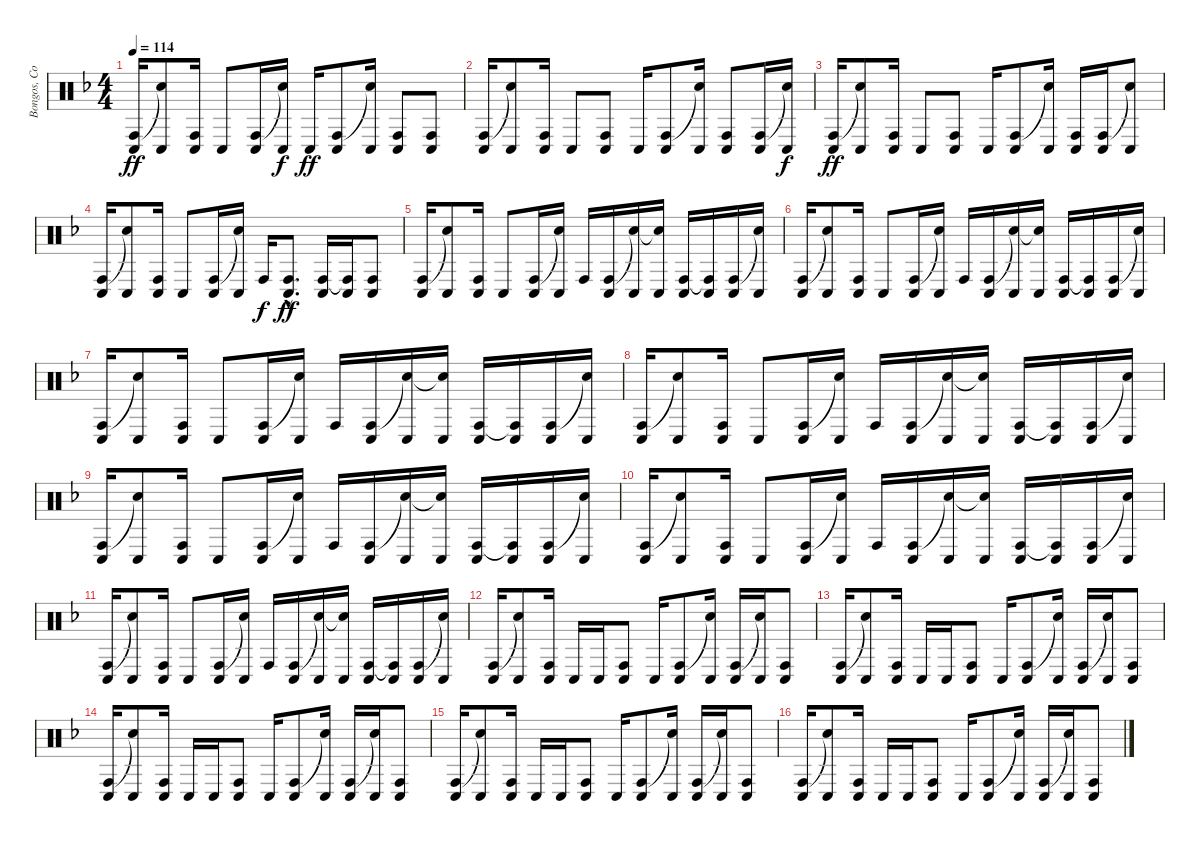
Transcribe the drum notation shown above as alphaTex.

\track ("Bongos, Congas, Timbales" "Bongos, Co") {instrument percussion}
\staff {score}
\articulation defaults
\ts (4 4)
\tempo 114
\clef neutral
\ks f
("Conga high (hit)" "Conga low (hit)").16{dy ff} ("Snare (hit)"{t} "Conga low (hit)").8 ("Conga high (hit)" "Conga low (hit)").16 "Conga low (hit)".8 ("Conga high (hit)" "Conga low (hit)").16 ("Snare (hit)"{t} "Conga low (hit)").16{dy f} "Conga low (hit)".16{dy ff} ("Conga high (hit)" "Conga low (hit)").8 ("Snare (hit)"{t} "Conga low (hit)").16 ("Conga high (hit)" "Conga low (hit)").8 ("Conga high (hit)" "Conga low (hit)").8 |
("Conga high (hit)" "Conga low (hit)").16 ("Snare (hit)"{t} "Conga low (hit)").8 ("Conga high (hit)" "Conga low (hit)").16 "Conga low (hit)".8 ("Conga high (hit)" "Conga low (hit)").8 "Conga low (hit)".16 ("Conga high (hit)" "Conga low (hit)").8 ("Snare (hit)"{t} "Conga low (hit)").16 ("Conga high (hit)" "Conga low (hit)").8 ("Conga high (hit)" "Conga low (hit)").16 ("Snare (hit)"{t} "Conga low (hit)").16{dy f} |
("Conga high (hit)" "Conga low (hit)").16{dy ff} ("Snare (hit)"{t} "Conga low (hit)").8 ("Conga high (hit)" "Conga low (hit)").16 "Conga low (hit)".8 ("Conga high (hit)" "Conga low (hit)").8 "Conga low (hit)".16 ("Conga high (hit)" "Conga low (hit)").8 ("Snare (hit)"{t} "Conga low (hit)").16 ("Conga high (hit)" "Conga low (hit)").16 ("Conga high (hit)" "Conga low (hit)").16 ("Snare (hit)"{t} "Conga low (hit)").8 |
("Conga high (hit)" "Conga low (hit)").16 ("Snare (hit)"{t} "Conga low (hit)").8 ("Conga high (hit)" "Conga low (hit)").16 "Conga low (hit)".8 ("Conga high (hit)" "Conga low (hit)").16 ("Snare (hit)"{t} "Conga low (hit)").16 "Conga high (hit)".16{dy f} ("Conga high (hit)"{hac} "Conga low (hit)"{hac}).8{d dy ff} ("Conga high (hit)" "Conga low (hit)").16 ("Conga high (hit)"{t} "Conga low (hit)").16 ("Conga high (hit)" "Conga low (hit)").8 |
("Conga high (hit)" "Conga low (hit)").16 ("Snare (hit)"{t} "Conga low (hit)").8 ("Conga high (hit)" "Conga low (hit)").16 "Conga low (hit)".8 ("Conga high (hit)" "Conga low (hit)").16 ("Snare (hit)"{t} "Conga low (hit)").16 "Conga high (hit)".16 ("Conga high (hit)" "Conga low (hit)").16 ("Snare (hit)"{t} "Conga low (hit)").16 ("Snare (hit)"{t} "Conga low (hit)").16 ("Conga high (hit)" "Conga low (hit)").16 ("Conga high (hit)"{t} "Conga low (hit)").16 ("Conga high (hit)" "Conga low (hit)").16 ("Snare (hit)"{t} "Conga low (hit)").16 |
("Conga high (hit)" "Conga low (hit)").16 ("Snare (hit)"{t} "Conga low (hit)").8 ("Conga high (hit)" "Conga low (hit)").16 "Conga low (hit)".8 ("Conga high (hit)" "Conga low (hit)").16 ("Snare (hit)"{t} "Conga low (hit)").16 "Conga high (hit)".16 ("Conga high (hit)" "Conga low (hit)").16 ("Snare (hit)"{t} "Conga low (hit)").16 ("Snare (hit)"{t} "Conga low (hit)").16 ("Conga high (hit)" "Conga low (hit)").16 ("Conga high (hit)"{t} "Conga low (hit)").16 ("Conga high (hit)" "Conga low (hit)").16 ("Snare (hit)"{t} "Conga low (hit)").16 |
("Conga high (hit)" "Conga low (hit)").16 ("Snare (hit)"{t} "Conga low (hit)").8 ("Conga high (hit)" "Conga low (hit)").16 "Conga low (hit)".8 ("Conga high (hit)" "Conga low (hit)").16 ("Snare (hit)"{t} "Conga low (hit)").16 "Conga high (hit)".16 ("Conga high (hit)" "Conga low (hit)").16 ("Snare (hit)"{t} "Conga low (hit)").16 ("Snare (hit)"{t} "Conga low (hit)").16 ("Conga high (hit)" "Conga low (hit)").16 ("Conga high (hit)"{t} "Conga low (hit)").16 ("Conga high (hit)" "Conga low (hit)").16 ("Snare (hit)"{t} "Conga low (hit)").16 |
("Conga high (hit)" "Conga low (hit)").16 ("Snare (hit)"{t} "Conga low (hit)").8 ("Conga high (hit)" "Conga low (hit)").16 "Conga low (hit)".8 ("Conga high (hit)" "Conga low (hit)").16 ("Snare (hit)"{t} "Conga low (hit)").16 "Conga high (hit)".16 ("Conga high (hit)" "Conga low (hit)").16 ("Snare (hit)"{t} "Conga low (hit)").16 ("Snare (hit)"{t} "Conga low (hit)").16 ("Conga high (hit)" "Conga low (hit)").16 ("Conga high (hit)"{t} "Conga low (hit)").16 ("Conga high (hit)" "Conga low (hit)").16 ("Snare (hit)"{t} "Conga low (hit)").16 |
("Conga high (hit)" "Conga low (hit)").16 ("Snare (hit)"{t} "Conga low (hit)").8 ("Conga high (hit)" "Conga low (hit)").16 "Conga low (hit)".8 ("Conga high (hit)" "Conga low (hit)").16 ("Snare (hit)"{t} "Conga low (hit)").16 "Conga high (hit)".16 ("Conga high (hit)" "Conga low (hit)").16 ("Snare (hit)"{t} "Conga low (hit)").16 ("Snare (hit)"{t} "Conga low (hit)").16 ("Conga high (hit)" "Conga low (hit)").16 ("Conga high (hit)"{t} "Conga low (hit)").16 ("Conga high (hit)" "Conga low (hit)").16 ("Snare (hit)"{t} "Conga low (hit)").16 |
("Conga high (hit)" "Conga low (hit)").16 ("Snare (hit)"{t} "Conga low (hit)").8 ("Conga high (hit)" "Conga low (hit)").16 "Conga low (hit)".8 ("Conga high (hit)" "Conga low (hit)").16 ("Snare (hit)"{t} "Conga low (hit)").16 "Conga high (hit)".16 ("Conga high (hit)" "Conga low (hit)").16 ("Snare (hit)"{t} "Conga low (hit)").16 ("Snare (hit)"{t} "Conga low (hit)").16 ("Conga high (hit)" "Conga low (hit)").16 ("Conga high (hit)"{t} "Conga low (hit)").16 ("Conga high (hit)" "Conga low (hit)").16 ("Snare (hit)"{t} "Conga low (hit)").16 |
("Conga high (hit)" "Conga low (hit)").16 ("Snare (hit)"{t} "Conga low (hit)").8 ("Conga high (hit)" "Conga low (hit)").16 "Conga low (hit)".8 ("Conga high (hit)" "Conga low (hit)").16 ("Snare (hit)"{t} "Conga low (hit)").16 "Conga high (hit)".16 ("Conga high (hit)" "Conga low (hit)").16 ("Snare (hit)"{t} "Conga low (hit)").16 ("Snare (hit)"{t} "Conga low (hit)").16 ("Conga high (hit)" "Conga low (hit)").16 ("Conga high (hit)"{t} "Conga low (hit)").16 ("Conga high (hit)" "Conga low (hit)").16 ("Snare (hit)"{t} "Conga low (hit)").16 |
("Conga high (hit)" "Conga low (hit)").16 ("Snare (hit)"{t} "Conga low (hit)").8 ("Conga high (hit)" "Conga low (hit)").16 "Conga low (hit)".16 "Conga low (hit)".16 ("Conga high (hit)" "Conga low (hit)").8 "Conga low (hit)".16 ("Conga high (hit)" "Conga low (hit)").8 ("Snare (hit)"{t} "Conga low (hit)").16 ("Conga high (hit)" "Conga low (hit)").16 ("Snare (hit)"{t} "Conga low (hit)").16 ("Conga high (hit)" "Conga low (hit)").8 |
("Conga high (hit)" "Conga low (hit)").16 ("Snare (hit)"{t} "Conga low (hit)").8 ("Conga high (hit)" "Conga low (hit)").16 "Conga low (hit)".16 "Conga low (hit)".16 ("Conga high (hit)" "Conga low (hit)").8 "Conga low (hit)".16 ("Conga high (hit)" "Conga low (hit)").8 ("Snare (hit)"{t} "Conga low (hit)").16 ("Conga high (hit)" "Conga low (hit)").16 ("Snare (hit)"{t} "Conga low (hit)").16 ("Conga high (hit)" "Conga low (hit)").8 |
("Conga high (hit)" "Conga low (hit)").16 ("Snare (hit)"{t} "Conga low (hit)").8 ("Conga high (hit)" "Conga low (hit)").16 "Conga low (hit)".16 "Conga low (hit)".16 ("Conga high (hit)" "Conga low (hit)").8 "Conga low (hit)".16 ("Conga high (hit)" "Conga low (hit)").8 ("Snare (hit)"{t} "Conga low (hit)").16 ("Conga high (hit)" "Conga low (hit)").16 ("Snare (hit)"{t} "Conga low (hit)").16 ("Conga high (hit)" "Conga low (hit)").8 |
("Conga high (hit)" "Conga low (hit)").16 ("Snare (hit)"{t} "Conga low (hit)").8 ("Conga high (hit)" "Conga low (hit)").16 "Conga low (hit)".16 "Conga low (hit)".16 ("Conga high (hit)" "Conga low (hit)").8 "Conga low (hit)".16 ("Conga high (hit)" "Conga low (hit)").8 ("Snare (hit)"{t} "Conga low (hit)").16 ("Conga high (hit)" "Conga low (hit)").16 ("Snare (hit)"{t} "Conga low (hit)").16 ("Conga high (hit)" "Conga low (hit)").8 |
("Conga high (hit)" "Conga low (hit)").16 ("Snare (hit)"{t} "Conga low (hit)").8 ("Conga high (hit)" "Conga low (hit)").16 "Conga low (hit)".16 "Conga low (hit)".16 ("Conga high (hit)" "Conga low (hit)").8 "Conga low (hit)".16 ("Conga high (hit)" "Conga low (hit)").8 ("Snare (hit)"{t} "Conga low (hit)").16 ("Conga high (hit)" "Conga low (hit)").16 ("Snare (hit)"{t} "Conga low (hit)").16 ("Conga high (hit)" "Conga low (hit)").8
